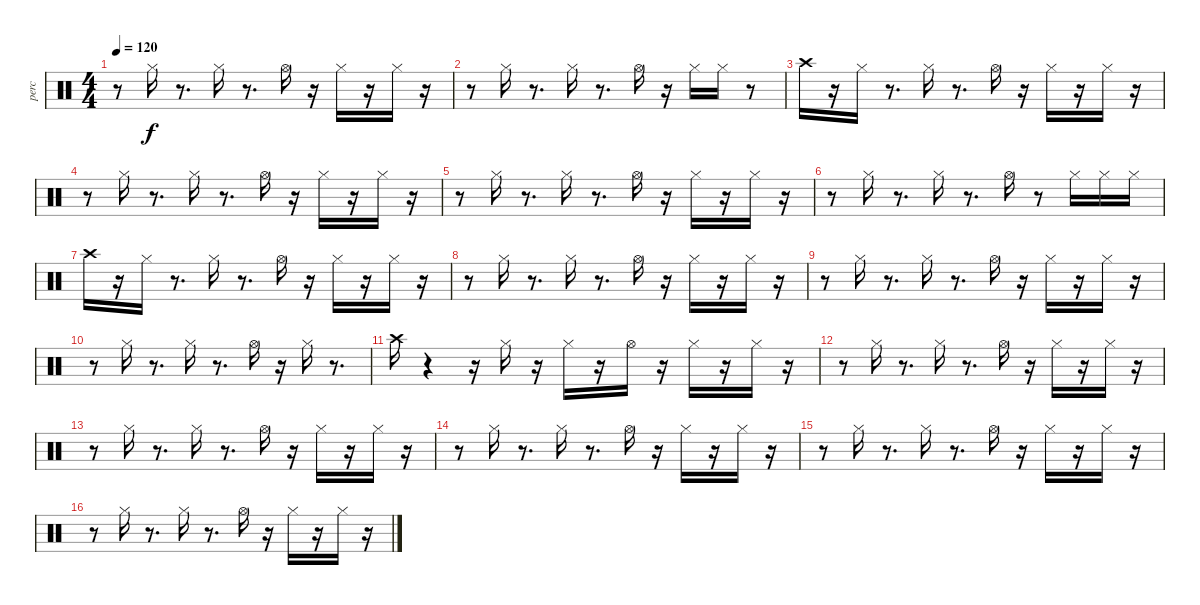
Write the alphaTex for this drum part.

\track ("perc" "perc") {instrument percussion}
\staff {score}
\articulation defaults
\ts (4 4)
\tempo 120
\clef neutral
\ks c
r.8{dy f} "Hi-Hat (closed)".16 r.8{d} "Hi-Hat (closed)".16 r.8{d} "Hi-Hat (open)".16 r.16 "Hi-Hat (closed)".16 r.16 "Hi-Hat (closed)".16 r.16 |
r.8 "Hi-Hat (closed)".16 r.8{d} "Hi-Hat (closed)".16 r.8{d} "Hi-Hat (open)".16 r.16 "Hi-Hat (closed)".16 "Hi-Hat (closed)".16 r.8 |
"Crash high (hit)".16 r.16 "Hi-Hat (closed)".16 r.8{d} "Hi-Hat (closed)".16 r.8{d} "Hi-Hat (open)".16 r.16 "Hi-Hat (closed)".16 r.16 "Hi-Hat (closed)".16 r.16 |
r.8 "Hi-Hat (closed)".16 r.8{d} "Hi-Hat (closed)".16 r.8{d} "Hi-Hat (open)".16 r.16 "Hi-Hat (closed)".16 r.16 "Hi-Hat (closed)".16 r.16 |
r.8 "Hi-Hat (closed)".16 r.8{d} "Hi-Hat (closed)".16 r.8{d} "Hi-Hat (open)".16 r.16 "Hi-Hat (closed)".16 r.16 "Hi-Hat (closed)".16 r.16 |
r.8 "Hi-Hat (closed)".16 r.8{d} "Hi-Hat (closed)".16 r.8{d} "Hi-Hat (open)".16 r.8 "Hi-Hat (closed)".16 "Hi-Hat (closed)".16 "Hi-Hat (closed)".16 |
"Crash high (hit)".16 r.16 "Hi-Hat (closed)".16 r.8{d} "Hi-Hat (closed)".16 r.8{d} "Hi-Hat (open)".16 r.16 "Hi-Hat (closed)".16 r.16 "Hi-Hat (closed)".16 r.16 |
r.8 "Hi-Hat (closed)".16 r.8{d} "Hi-Hat (closed)".16 r.8{d} "Hi-Hat (open)".16 r.16 "Hi-Hat (closed)".16 r.16 "Hi-Hat (closed)".16 r.16 |
r.8 "Hi-Hat (closed)".16 r.8{d} "Hi-Hat (closed)".16 r.8{d} "Hi-Hat (open)".16 r.16 "Hi-Hat (closed)".16 r.16 "Hi-Hat (closed)".16 r.16 |
r.8 "Hi-Hat (closed)".16 r.8{d} "Hi-Hat (closed)".16 r.8{d} "Hi-Hat (open)".16 r.16 "Hi-Hat (closed)".16 r.8{d} |
"Crash high (hit)".16 r.4 r.16 "Hi-Hat (closed)".16 r.16 "Hi-Hat (closed)".16 r.16 "Hi-Hat (open)".16 r.16 "Hi-Hat (closed)".16 r.16 "Hi-Hat (closed)".16 r.16 |
r.8 "Hi-Hat (closed)".16 r.8{d} "Hi-Hat (closed)".16 r.8{d} "Hi-Hat (open)".16 r.16 "Hi-Hat (closed)".16 r.16 "Hi-Hat (closed)".16 r.16 |
r.8 "Hi-Hat (closed)".16 r.8{d} "Hi-Hat (closed)".16 r.8{d} "Hi-Hat (open)".16 r.16 "Hi-Hat (closed)".16 r.16 "Hi-Hat (closed)".16 r.16 |
r.8 "Hi-Hat (closed)".16 r.8{d} "Hi-Hat (closed)".16 r.8{d} "Hi-Hat (open)".16 r.16 "Hi-Hat (closed)".16 r.16 "Hi-Hat (closed)".16 r.16 |
r.8 "Hi-Hat (closed)".16 r.8{d} "Hi-Hat (closed)".16 r.8{d} "Hi-Hat (open)".16 r.16 "Hi-Hat (closed)".16 r.16 "Hi-Hat (closed)".16 r.16 |
r.8 "Hi-Hat (closed)".16 r.8{d} "Hi-Hat (closed)".16 r.8{d} "Hi-Hat (open)".16 r.16 "Hi-Hat (closed)".16 r.16 "Hi-Hat (closed)".16 r.16
